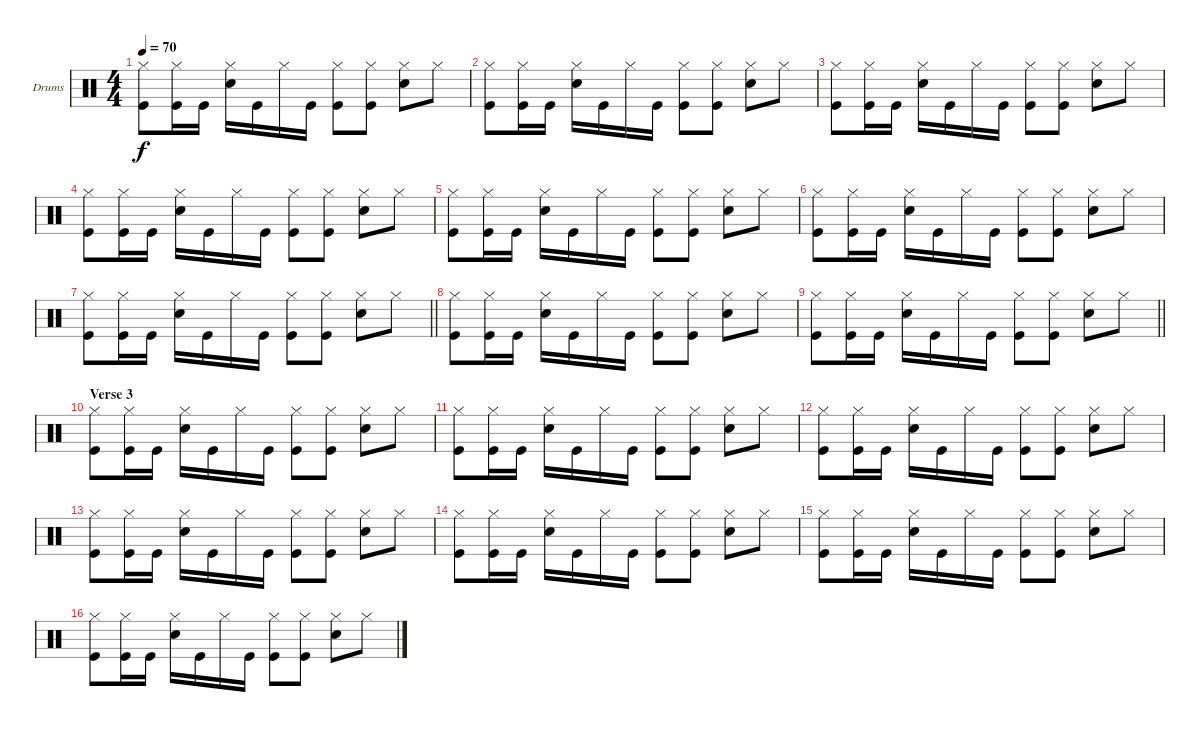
\bracketExtendMode groupsimilarinstruments
\firstSystemTrackNameOrientation horizontal
\otherSystemsTrackNameOrientation horizontal
\track ("Drumkit" "Drums") {instrument percussion}
\staff {score}
\articulation defaults
\ts (4 4)
\tempo 70
\clef neutral
\ks c
("Hi-Hat (closed)" "Kick (hit)").8{dy f} ("Hi-Hat (closed)" "Kick (hit)").16 "Kick (hit)".16 ("Hi-Hat (closed)" "Snare (hit) 2").16 "Kick (hit)".16 "Hi-Hat (closed)".16 "Kick (hit)".16 ("Hi-Hat (closed)" "Kick (hit)").8 ("Hi-Hat (closed)" "Kick (hit)").8 ("Hi-Hat (closed)" "Snare (hit) 2").8 "Hi-Hat (closed)".8 |
("Hi-Hat (closed)" "Kick (hit)").8 ("Hi-Hat (closed)" "Kick (hit)").16 "Kick (hit)".16 ("Hi-Hat (closed)" "Snare (hit) 2").16 "Kick (hit)".16 "Hi-Hat (closed)".16 "Kick (hit)".16 ("Hi-Hat (closed)" "Kick (hit)").8 ("Hi-Hat (closed)" "Kick (hit)").8 ("Hi-Hat (closed)" "Snare (hit) 2").8 "Hi-Hat (closed)".8 |
("Hi-Hat (closed)" "Kick (hit)").8 ("Hi-Hat (closed)" "Kick (hit)").16 "Kick (hit)".16 ("Hi-Hat (closed)" "Snare (hit) 2").16 "Kick (hit)".16 "Hi-Hat (closed)".16 "Kick (hit)".16 ("Hi-Hat (closed)" "Kick (hit)").8 ("Hi-Hat (closed)" "Kick (hit)").8 ("Hi-Hat (closed)" "Snare (hit) 2").8 "Hi-Hat (closed)".8 |
("Hi-Hat (closed)" "Kick (hit)").8 ("Hi-Hat (closed)" "Kick (hit)").16 "Kick (hit)".16 ("Hi-Hat (closed)" "Snare (hit) 2").16 "Kick (hit)".16 "Hi-Hat (closed)".16 "Kick (hit)".16 ("Hi-Hat (closed)" "Kick (hit)").8 ("Hi-Hat (closed)" "Kick (hit)").8 ("Hi-Hat (closed)" "Snare (hit) 2").8 "Hi-Hat (closed)".8 |
("Hi-Hat (closed)" "Kick (hit)").8 ("Hi-Hat (closed)" "Kick (hit)").16 "Kick (hit)".16 ("Hi-Hat (closed)" "Snare (hit) 2").16 "Kick (hit)".16 "Hi-Hat (closed)".16 "Kick (hit)".16 ("Hi-Hat (closed)" "Kick (hit)").8 ("Hi-Hat (closed)" "Kick (hit)").8 ("Hi-Hat (closed)" "Snare (hit) 2").8 "Hi-Hat (closed)".8 |
("Hi-Hat (closed)" "Kick (hit)").8 ("Hi-Hat (closed)" "Kick (hit)").16 "Kick (hit)".16 ("Hi-Hat (closed)" "Snare (hit) 2").16 "Kick (hit)".16 "Hi-Hat (closed)".16 "Kick (hit)".16 ("Hi-Hat (closed)" "Kick (hit)").8 ("Hi-Hat (closed)" "Kick (hit)").8 ("Hi-Hat (closed)" "Snare (hit) 2").8 "Hi-Hat (closed)".8 |
\barLineRight lightlight
("Hi-Hat (closed)" "Kick (hit)").8 ("Hi-Hat (closed)" "Kick (hit)").16 "Kick (hit)".16 ("Hi-Hat (closed)" "Snare (hit) 2").16 "Kick (hit)".16 "Hi-Hat (closed)".16 "Kick (hit)".16 ("Hi-Hat (closed)" "Kick (hit)").8 ("Hi-Hat (closed)" "Kick (hit)").8 ("Hi-Hat (closed)" "Snare (hit) 2").8 "Hi-Hat (closed)".8 |
("Hi-Hat (closed)" "Kick (hit)").8 ("Hi-Hat (closed)" "Kick (hit)").16 "Kick (hit)".16 ("Hi-Hat (closed)" "Snare (hit) 2").16 "Kick (hit)".16 "Hi-Hat (closed)".16 "Kick (hit)".16 ("Hi-Hat (closed)" "Kick (hit)").8 ("Hi-Hat (closed)" "Kick (hit)").8 ("Hi-Hat (closed)" "Snare (hit) 2").8 "Hi-Hat (closed)".8 |
\barLineRight lightlight
("Hi-Hat (closed)" "Kick (hit)").8 ("Hi-Hat (closed)" "Kick (hit)").16 "Kick (hit)".16 ("Hi-Hat (closed)" "Snare (hit) 2").16 "Kick (hit)".16 "Hi-Hat (closed)".16 "Kick (hit)".16 ("Hi-Hat (closed)" "Kick (hit)").8 ("Hi-Hat (closed)" "Kick (hit)").8 ("Hi-Hat (closed)" "Snare (hit) 2").8 "Hi-Hat (closed)".8 |
\section ("" "Verse 3")
("Hi-Hat (closed)" "Kick (hit)").8 ("Hi-Hat (closed)" "Kick (hit)").16 "Kick (hit)".16 ("Hi-Hat (closed)" "Snare (hit) 2").16 "Kick (hit)".16 "Hi-Hat (closed)".16 "Kick (hit)".16 ("Hi-Hat (closed)" "Kick (hit)").8 ("Hi-Hat (closed)" "Kick (hit)").8 ("Hi-Hat (closed)" "Snare (hit) 2").8 "Hi-Hat (closed)".8 |
("Hi-Hat (closed)" "Kick (hit)").8 ("Hi-Hat (closed)" "Kick (hit)").16 "Kick (hit)".16 ("Hi-Hat (closed)" "Snare (hit) 2").16 "Kick (hit)".16 "Hi-Hat (closed)".16 "Kick (hit)".16 ("Hi-Hat (closed)" "Kick (hit)").8 ("Hi-Hat (closed)" "Kick (hit)").8 ("Hi-Hat (closed)" "Snare (hit) 2").8 "Hi-Hat (closed)".8 |
("Hi-Hat (closed)" "Kick (hit)").8 ("Hi-Hat (closed)" "Kick (hit)").16 "Kick (hit)".16 ("Hi-Hat (closed)" "Snare (hit) 2").16 "Kick (hit)".16 "Hi-Hat (closed)".16 "Kick (hit)".16 ("Hi-Hat (closed)" "Kick (hit)").8 ("Hi-Hat (closed)" "Kick (hit)").8 ("Hi-Hat (closed)" "Snare (hit) 2").8 "Hi-Hat (closed)".8 |
("Hi-Hat (closed)" "Kick (hit)").8 ("Hi-Hat (closed)" "Kick (hit)").16 "Kick (hit)".16 ("Hi-Hat (closed)" "Snare (hit) 2").16 "Kick (hit)".16 "Hi-Hat (closed)".16 "Kick (hit)".16 ("Hi-Hat (closed)" "Kick (hit)").8 ("Hi-Hat (closed)" "Kick (hit)").8 ("Hi-Hat (closed)" "Snare (hit) 2").8 "Hi-Hat (closed)".8 |
("Hi-Hat (closed)" "Kick (hit)").8 ("Hi-Hat (closed)" "Kick (hit)").16 "Kick (hit)".16 ("Hi-Hat (closed)" "Snare (hit) 2").16 "Kick (hit)".16 "Hi-Hat (closed)".16 "Kick (hit)".16 ("Hi-Hat (closed)" "Kick (hit)").8 ("Hi-Hat (closed)" "Kick (hit)").8 ("Hi-Hat (closed)" "Snare (hit) 2").8 "Hi-Hat (closed)".8 |
("Hi-Hat (closed)" "Kick (hit)").8 ("Hi-Hat (closed)" "Kick (hit)").16 "Kick (hit)".16 ("Hi-Hat (closed)" "Snare (hit) 2").16 "Kick (hit)".16 "Hi-Hat (closed)".16 "Kick (hit)".16 ("Hi-Hat (closed)" "Kick (hit)").8 ("Hi-Hat (closed)" "Kick (hit)").8 ("Hi-Hat (closed)" "Snare (hit) 2").8 "Hi-Hat (closed)".8 |
("Hi-Hat (closed)" "Kick (hit)").8 ("Hi-Hat (closed)" "Kick (hit)").16 "Kick (hit)".16 ("Hi-Hat (closed)" "Snare (hit) 2").16 "Kick (hit)".16 "Hi-Hat (closed)".16 "Kick (hit)".16 ("Hi-Hat (closed)" "Kick (hit)").8 ("Hi-Hat (closed)" "Kick (hit)").8 ("Hi-Hat (closed)" "Snare (hit) 2").8 "Hi-Hat (closed)".8
